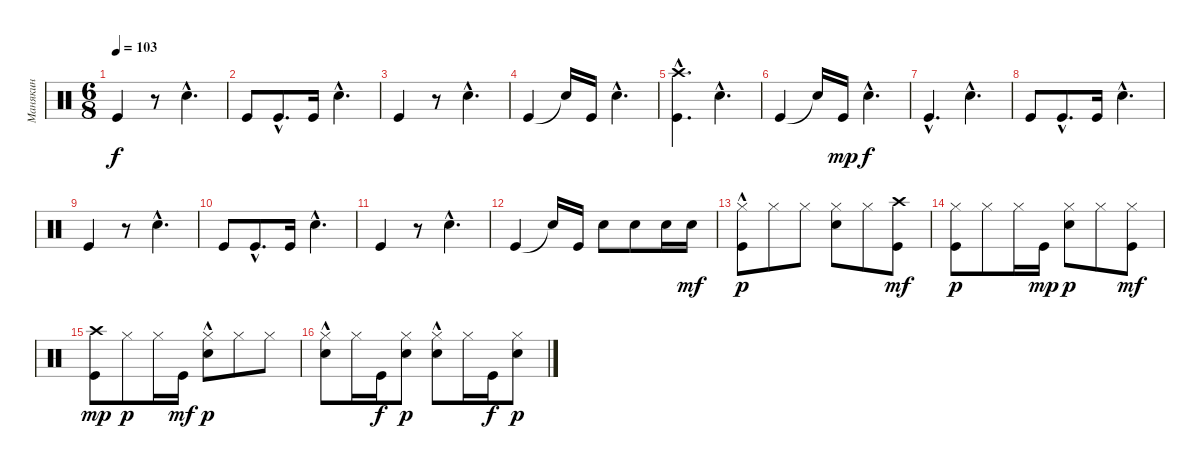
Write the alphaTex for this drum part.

\track ("Манякин" "Манякин") {instrument percussion}
\staff {score}
\articulation defaults
\ts (6 8)
\tempo 103
\clef neutral
\ks c "Kick (hit)".4{dy f}
r.8 "Electric Snare (hit)"{hac}.4{d} |
"Kick (hit)".8 "Kick (hit)"{hac}.8{d} "Kick (hit)".16 "Electric Snare (hit)"{hac}.4{d} |
"Kick (hit)".4 r.8 "Electric Snare (hit)"{hac}.4{d} |
"Kick (hit)".4 "Snare (hit)"{t}.16 "Kick (hit)".16 "Electric Snare (hit)"{hac}.4{d} |
("Crash high (hit)"{hac} "Kick (hit)"{hac}).4{d} "Electric Snare (hit)"{hac}.4{d} |
"Kick (hit)".4 "Snare (hit)"{t}.16 "Kick (hit)".16{dy mp} "Electric Snare (hit)"{hac}.4{d dy f} |
"Kick (hit)"{hac}.4{d} "Electric Snare (hit)"{hac}.4{d} |
"Kick (hit)".8 "Kick (hit)"{hac}.8{d} "Kick (hit)".16 "Electric Snare (hit)"{hac}.4{d} |
"Kick (hit)".4 r.8 "Electric Snare (hit)"{hac}.4{d} |
"Kick (hit)".8 "Kick (hit)"{hac}.8{d} "Kick (hit)".16 "Electric Snare (hit)"{hac}.4{d} |
"Kick (hit)".4 r.8 "Electric Snare (hit)"{hac}.4{d} |
"Kick (hit)".4 "Snare (hit)"{t}.16 "Kick (hit)".16 "Electric Snare (hit)".8 "Electric Snare (hit)".8 "Electric Snare (hit)".16 "Electric Snare (hit)".16{dy mf} |
("Hi-Hat (closed)" "Kick (hit)"{hac}).8{dy p} "Hi-Hat (closed)".8 "Hi-Hat (closed)".8 ("Hi-Hat (closed)" "Electric Snare (hit)").8 "Hi-Hat (closed)".8 ("Crash high (hit)" "Kick (hit)").8{dy mf} |
("Hi-Hat (closed)" "Kick (hit)").8{dy p} "Hi-Hat (closed)".8 "Hi-Hat (closed)".16 "Kick (hit)".16{dy mp} ("Hi-Hat (closed)" "Electric Snare (hit)").8{dy p} "Hi-Hat (closed)".8 ("Hi-Hat (closed)" "Kick (hit)").8{dy mf} |
("Crash high (hit)" "Kick (hit)").8{dy mp} "Hi-Hat (closed)".8{dy p} "Hi-Hat (closed)".16 "Kick (hit)".16{dy mf} ("Hi-Hat (closed)" "Electric Snare (hit)"{hac}).8{dy p} "Hi-Hat (closed)".8 "Hi-Hat (closed)".8 |
("Hi-Hat (closed)" "Electric Snare (hit)"{hac}).8 "Hi-Hat (closed)".16 "Kick (hit)".16{dy f} ("Hi-Hat (closed)" "Electric Snare (hit)").8{dy p} ("Hi-Hat (closed)" "Electric Snare (hit)"{hac}).8 "Hi-Hat (closed)".16 "Kick (hit)".16{dy f} ("Hi-Hat (closed)" "Electric Snare (hit)").8{dy p}
